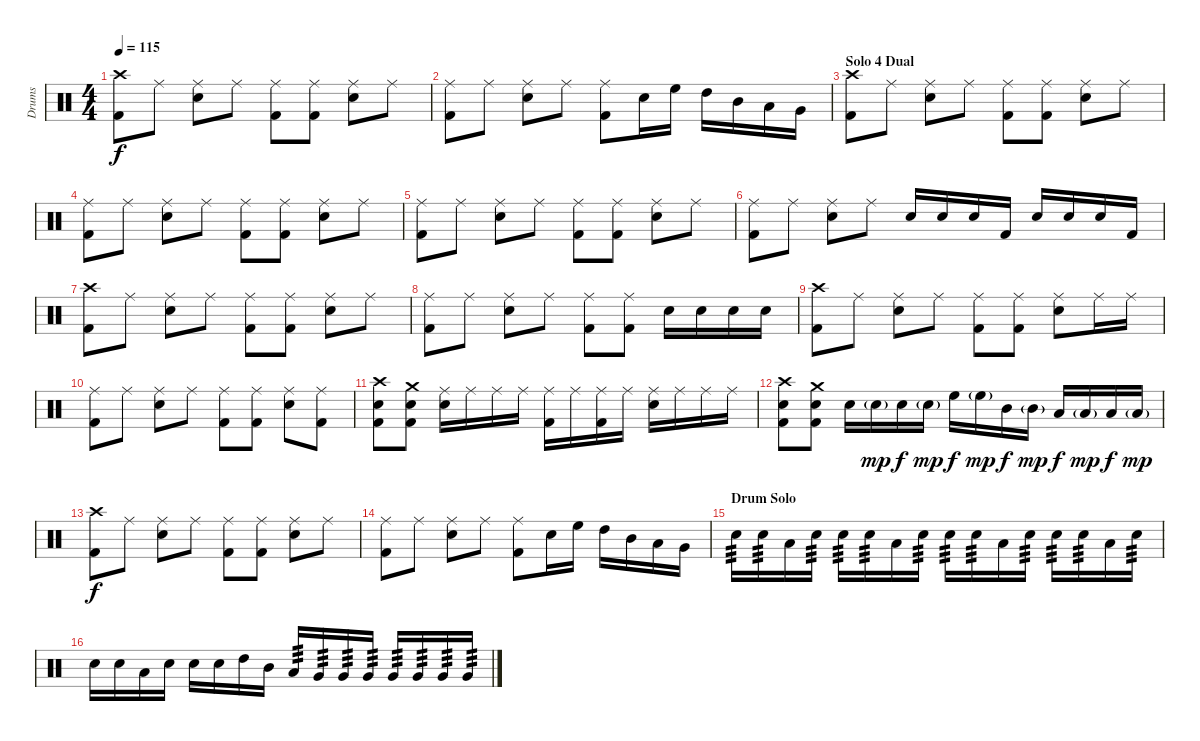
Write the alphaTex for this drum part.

\track ("Drums" "Drums") {instrument percussion}
\staff {score}
\articulation defaults
\ts (4 4)
\tempo 115
\clef neutral
\ks c
("Crash high (hit)" "Kick (hit) 2").8{dy f} "Ride (middle)".8 ("Ride (middle)" "Electric Snare (hit)").8 "Ride (middle)".8 ("Ride (middle)" "Kick (hit) 2").8 ("Ride (middle)" "Kick (hit) 2").8 ("Ride (middle)" "Electric Snare (hit)").8 "Ride (middle)".8 |
("Ride (middle)" "Kick (hit) 2").8 "Ride (middle)".8 ("Ride (middle)" "Electric Snare (hit)").8 "Ride (middle)".8 ("Ride (middle)" "Kick (hit) 2").8 "Electric Snare (hit)".16 "High Floor Tom (hit)".16 "High Tom (hit)".16 "Mid Tom (hit)".16 "Low Tom (hit)".16 "Very Low Tom (hit)".16 |
\section ("" "Solo 4 Dual")
("Crash high (hit)" "Kick (hit) 2").8 "Ride (middle)".8 ("Ride (middle)" "Electric Snare (hit)").8 "Ride (middle)".8 ("Ride (middle)" "Kick (hit) 2").8 ("Ride (middle)" "Kick (hit) 2").8 ("Ride (middle)" "Electric Snare (hit)").8 "Ride (middle)".8 |
("Ride (middle)" "Kick (hit) 2").8 "Ride (middle)".8 ("Ride (middle)" "Electric Snare (hit)").8 "Ride (middle)".8 ("Ride (middle)" "Kick (hit) 2").8 ("Ride (middle)" "Kick (hit) 2").8 ("Ride (middle)" "Electric Snare (hit)").8 "Ride (middle)".8 |
("Ride (middle)" "Kick (hit) 2").8 "Ride (middle)".8 ("Ride (middle)" "Electric Snare (hit)").8 "Ride (middle)".8 ("Ride (middle)" "Kick (hit) 2").8 ("Ride (middle)" "Kick (hit) 2").8 ("Ride (middle)" "Electric Snare (hit)").8 "Ride (middle)".8 |
("Ride (middle)" "Kick (hit) 2").8 "Ride (middle)".8 ("Ride (middle)" "Electric Snare (hit)").8 "Ride (middle)".8 "Electric Snare (hit)".16 "Electric Snare (hit)".16 "Electric Snare (hit)".16 "Kick (hit) 2".16 "Electric Snare (hit)".16 "Electric Snare (hit)".16 "Electric Snare (hit)".16 "Kick (hit) 2".16 |
("Crash high (hit)" "Kick (hit) 2").8 "Ride (middle)".8 ("Ride (middle)" "Electric Snare (hit)").8 "Ride (middle)".8 ("Ride (middle)" "Kick (hit) 2").8 ("Ride (middle)" "Kick (hit) 2").8 ("Ride (middle)" "Electric Snare (hit)").8 "Ride (middle)".8 |
("Ride (middle)" "Kick (hit) 2").8 "Ride (middle)".8 ("Ride (middle)" "Electric Snare (hit)").8 "Ride (middle)".8 ("Ride (middle)" "Kick (hit) 2").8 ("Ride (middle)" "Kick (hit) 2").8 "Electric Snare (hit)".16 "Electric Snare (hit)".16 "Electric Snare (hit)".16 "Electric Snare (hit)".16 |
("Crash high (hit)" "Kick (hit) 2").8 "Ride (middle)".8 ("Ride (middle)" "Electric Snare (hit)").8 "Ride (middle)".8 ("Ride (middle)" "Kick (hit) 2").8 ("Ride (middle)" "Kick (hit) 2").8 ("Ride (middle)" "Electric Snare (hit)").8 "Ride (middle)".16 "Ride (middle)".16 |
("Ride (middle)" "Kick (hit) 2").8 "Ride (middle)".8 ("Ride (middle)" "Electric Snare (hit)").8 "Ride (middle)".8 ("Ride (middle)" "Kick (hit) 2").8 ("Ride (middle)" "Kick (hit) 2").8 ("Ride (middle)" "Electric Snare (hit)").8 ("Ride (middle)" "Kick (hit) 2").8 |
("Crash high (hit)" "Kick (hit) 2" "Electric Snare (hit)").8 ("Crash medium (hit)" "Kick (hit) 2" "Electric Snare (hit)").8 ("Ride (middle)" "Electric Snare (hit)").16 "Ride (middle)".16 "Ride (middle)".16 "Ride (middle)".16 ("Ride (middle)" "Kick (hit) 2").16 "Ride (middle)".16 ("Ride (middle)" "Kick (hit) 2").16 "Ride (middle)".16 ("Ride (middle)" "Electric Snare (hit)").16 "Ride (middle)".16 "Ride (middle)".16 "Ride (middle)".16 |
("Crash high (hit)" "Kick (hit) 2" "Electric Snare (hit)").8 ("Crash medium (hit)" "Kick (hit) 2" "Electric Snare (hit)").8 "Electric Snare (hit)".16 "Electric Snare (hit)"{g}.16{dy mp} "Electric Snare (hit)".16{dy f} "Electric Snare (hit)"{g}.16{dy mp} "High Floor Tom (hit)".16{dy f} "High Floor Tom (hit)"{g}.16{dy mp} "Mid Tom (hit)".16{dy f} "Mid Tom (hit)"{g}.16{dy mp} "Low Tom (hit)".16{dy f} "Low Tom (hit)"{g}.16{dy mp} "Low Floor Tom (hit)".16{dy f} "Low Floor Tom (hit)"{g}.16{dy mp} |
("Crash high (hit)" "Kick (hit) 2").8{dy f} "Ride (middle)".8 ("Ride (middle)" "Electric Snare (hit)").8 "Ride (middle)".8 ("Ride (middle)" "Kick (hit) 2").8 ("Ride (middle)" "Kick (hit) 2").8 ("Ride (middle)" "Electric Snare (hit)").8 "Ride (middle)".8 |
("Ride (middle)" "Kick (hit) 2").8 "Ride (middle)".8 ("Ride (middle)" "Electric Snare (hit)").8 "Ride (middle)".8 ("Ride (middle)" "Kick (hit) 2").8 "Electric Snare (hit)".16 "High Floor Tom (hit)".16 "High Tom (hit)".16 "Mid Tom (hit)".16 "Low Tom (hit)".16 "Very Low Tom (hit)".16 |
\section ("" "Drum Solo")
"Electric Snare (hit)".16{tp 3} "Electric Snare (hit)".16{tp 3} "Low Tom (hit)".16 "Electric Snare (hit)".16{tp 3} "Electric Snare (hit)".16{tp 3} "Electric Snare (hit)".16{tp 3} "Low Tom (hit)".16 "Electric Snare (hit)".16{tp 3} "Electric Snare (hit)".16{tp 3} "Electric Snare (hit)".16{tp 3} "Low Tom (hit)".16 "Electric Snare (hit)".16{tp 3} "Electric Snare (hit)".16{tp 3} "Electric Snare (hit)".16{tp 3} "Low Tom (hit)".16 "Electric Snare (hit)".16{tp 3} |
"Electric Snare (hit)".16 "Electric Snare (hit)".16 "Low Tom (hit)".16 "Electric Snare (hit)".16 "Electric Snare (hit)".16 "Electric Snare (hit)".16 "High Tom (hit)".16 "Mid Tom (hit)".16 "Low Tom (hit)".16{tp 3} "Very Low Tom (hit)".16{tp 3} "Very Low Tom (hit)".16{tp 3} "Very Low Tom (hit)".16{tp 3} "Very Low Tom (hit)".16{tp 3} "Very Low Tom (hit)".16{tp 3} "Very Low Tom (hit)".16{tp 3} "Very Low Tom (hit)".16{tp 3}
